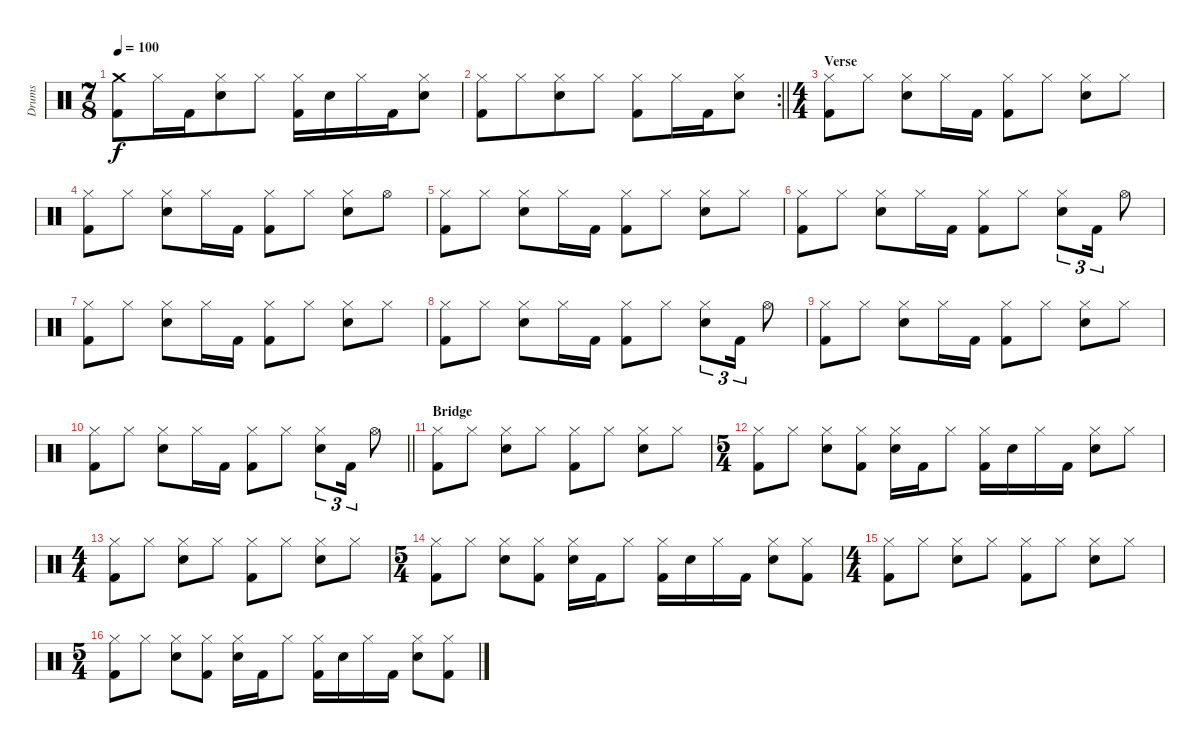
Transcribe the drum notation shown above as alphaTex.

\track ("Drums" "Drums") {instrument percussion}
\staff {score}
\articulation defaults
\ts (7 8)
\tempo 100
\clef neutral
\ks c
("Crash medium (hit)" "Kick (hit) 2").8{dy f} "Hi-Hat (closed)".16 "Kick (hit) 2".16 ("Hi-Hat (closed)" "Electric Snare (hit)").8 "Hi-Hat (closed)".8 ("Hi-Hat (closed)" "Kick (hit) 2").16 "Electric Snare (hit)".16 "Hi-Hat (closed)".16 "Kick (hit) 2".16 ("Hi-Hat (closed)" "Electric Snare (hit)").8 |
\rc 2
\barLineRight lightlight
("Hi-Hat (closed)" "Kick (hit) 2").8 "Hi-Hat (closed)".8 ("Hi-Hat (closed)" "Electric Snare (hit)").8 "Hi-Hat (closed)".8 ("Hi-Hat (closed)" "Kick (hit) 2").8 "Hi-Hat (closed)".16 "Kick (hit) 2".16 ("Hi-Hat (closed)" "Electric Snare (hit)").8 |
\ts (4 4)
\section ("" "Verse")
("Hi-Hat (closed)" "Kick (hit) 2").8 "Hi-Hat (closed)".8 ("Hi-Hat (closed)" "Electric Snare (hit)").8 "Hi-Hat (closed)".16 "Kick (hit) 2".16 ("Hi-Hat (closed)" "Kick (hit) 2").8 "Hi-Hat (closed)".8 ("Hi-Hat (closed)" "Electric Snare (hit)").8 "Hi-Hat (closed)".8 |
("Hi-Hat (closed)" "Kick (hit) 2").8 "Hi-Hat (closed)".8 ("Hi-Hat (closed)" "Electric Snare (hit)").8 "Hi-Hat (closed)".16 "Kick (hit) 2".16 ("Hi-Hat (closed)" "Kick (hit) 2").8 "Hi-Hat (closed)".8 ("Hi-Hat (closed)" "Electric Snare (hit)").8 "Hi-Hat (open)".8 |
("Hi-Hat (closed)" "Kick (hit) 2").8 "Hi-Hat (closed)".8 ("Hi-Hat (closed)" "Electric Snare (hit)").8 "Hi-Hat (closed)".16 "Kick (hit) 2".16 ("Hi-Hat (closed)" "Kick (hit) 2").8 "Hi-Hat (closed)".8 ("Hi-Hat (closed)" "Electric Snare (hit)").8 "Hi-Hat (closed)".8 |
("Hi-Hat (closed)" "Kick (hit) 2").8 "Hi-Hat (closed)".8 ("Hi-Hat (closed)" "Electric Snare (hit)").8 "Hi-Hat (closed)".16 "Kick (hit) 2".16 ("Hi-Hat (closed)" "Kick (hit) 2").8 "Hi-Hat (closed)".8 ("Hi-Hat (closed)" "Electric Snare (hit)").8{tu (3 2)} "Kick (hit) 2".16{tu (3 2)} "Hi-Hat (open)".8 |
("Hi-Hat (closed)" "Kick (hit) 2").8 "Hi-Hat (closed)".8 ("Hi-Hat (closed)" "Electric Snare (hit)").8 "Hi-Hat (closed)".16 "Kick (hit) 2".16 ("Hi-Hat (closed)" "Kick (hit) 2").8 "Hi-Hat (closed)".8 ("Hi-Hat (closed)" "Electric Snare (hit)").8 "Hi-Hat (closed)".8 |
("Hi-Hat (closed)" "Kick (hit) 2").8 "Hi-Hat (closed)".8 ("Hi-Hat (closed)" "Electric Snare (hit)").8 "Hi-Hat (closed)".16 "Kick (hit) 2".16 ("Hi-Hat (closed)" "Kick (hit) 2").8 "Hi-Hat (closed)".8 ("Hi-Hat (closed)" "Electric Snare (hit)").8{tu (3 2)} "Kick (hit) 2".16{tu (3 2)} "Hi-Hat (open)".8 |
("Hi-Hat (closed)" "Kick (hit) 2").8 "Hi-Hat (closed)".8 ("Hi-Hat (closed)" "Electric Snare (hit)").8 "Hi-Hat (closed)".16 "Kick (hit) 2".16 ("Hi-Hat (closed)" "Kick (hit) 2").8 "Hi-Hat (closed)".8 ("Hi-Hat (closed)" "Electric Snare (hit)").8 "Hi-Hat (closed)".8 |
\barLineRight lightlight
("Hi-Hat (closed)" "Kick (hit) 2").8 "Hi-Hat (closed)".8 ("Hi-Hat (closed)" "Electric Snare (hit)").8 "Hi-Hat (closed)".16 "Kick (hit) 2".16 ("Hi-Hat (closed)" "Kick (hit) 2").8 "Hi-Hat (closed)".8 ("Hi-Hat (closed)" "Electric Snare (hit)").8{tu (3 2)} "Kick (hit) 2".16{tu (3 2)} "Hi-Hat (open)".8 |
\section ("" "Bridge")
("Hi-Hat (closed)" "Kick (hit) 2").8 "Hi-Hat (closed)".8 ("Hi-Hat (closed)" "Electric Snare (hit)").8 "Hi-Hat (closed)".8 ("Hi-Hat (closed)" "Kick (hit) 2").8 "Hi-Hat (closed)".8 ("Hi-Hat (closed)" "Electric Snare (hit)").8 "Hi-Hat (closed)".8 |
\ts (5 4)
("Hi-Hat (closed)" "Kick (hit) 2").8 "Hi-Hat (closed)".8 ("Hi-Hat (closed)" "Electric Snare (hit)").8 ("Hi-Hat (closed)" "Kick (hit) 2").8 ("Hi-Hat (closed)" "Electric Snare (hit)").16 "Kick (hit) 2".16 "Hi-Hat (closed)".8 ("Hi-Hat (closed)" "Kick (hit) 2").16 "Electric Snare (hit)".16 "Hi-Hat (closed)".16 "Kick (hit) 2".16 ("Hi-Hat (closed)" "Electric Snare (hit)").8 "Hi-Hat (closed)".8 |
\ts (4 4)
("Hi-Hat (closed)" "Kick (hit) 2").8 "Hi-Hat (closed)".8 ("Hi-Hat (closed)" "Electric Snare (hit)").8 "Hi-Hat (closed)".8 ("Hi-Hat (closed)" "Kick (hit) 2").8 "Hi-Hat (closed)".8 ("Hi-Hat (closed)" "Electric Snare (hit)").8 "Hi-Hat (closed)".8 |
\ts (5 4)
("Hi-Hat (closed)" "Kick (hit) 2").8 "Hi-Hat (closed)".8 ("Hi-Hat (closed)" "Electric Snare (hit)").8 ("Hi-Hat (closed)" "Kick (hit) 2").8 ("Hi-Hat (closed)" "Electric Snare (hit)").16 "Kick (hit) 2".16 "Hi-Hat (closed)".8 ("Hi-Hat (closed)" "Kick (hit) 2").16 "Electric Snare (hit)".16 "Hi-Hat (closed)".16 "Kick (hit) 2".16 ("Hi-Hat (closed)" "Electric Snare (hit)").8 ("Hi-Hat (closed)" "Kick (hit) 2").8 |
\ts (4 4)
("Hi-Hat (closed)" "Kick (hit) 2").8 "Hi-Hat (closed)".8 ("Hi-Hat (closed)" "Electric Snare (hit)").8 "Hi-Hat (closed)".8 ("Hi-Hat (closed)" "Kick (hit) 2").8 "Hi-Hat (closed)".8 ("Hi-Hat (closed)" "Electric Snare (hit)").8 "Hi-Hat (closed)".8 |
\ts (5 4)
("Hi-Hat (closed)" "Kick (hit) 2").8 "Hi-Hat (closed)".8 ("Hi-Hat (closed)" "Electric Snare (hit)").8 ("Hi-Hat (closed)" "Kick (hit) 2").8 ("Hi-Hat (closed)" "Electric Snare (hit)").16 "Kick (hit) 2".16 "Hi-Hat (closed)".8 ("Hi-Hat (closed)" "Kick (hit) 2").16 "Electric Snare (hit)".16 "Hi-Hat (closed)".16 "Kick (hit) 2".16 ("Hi-Hat (closed)" "Electric Snare (hit)").8 ("Hi-Hat (closed)" "Kick (hit) 2").8
